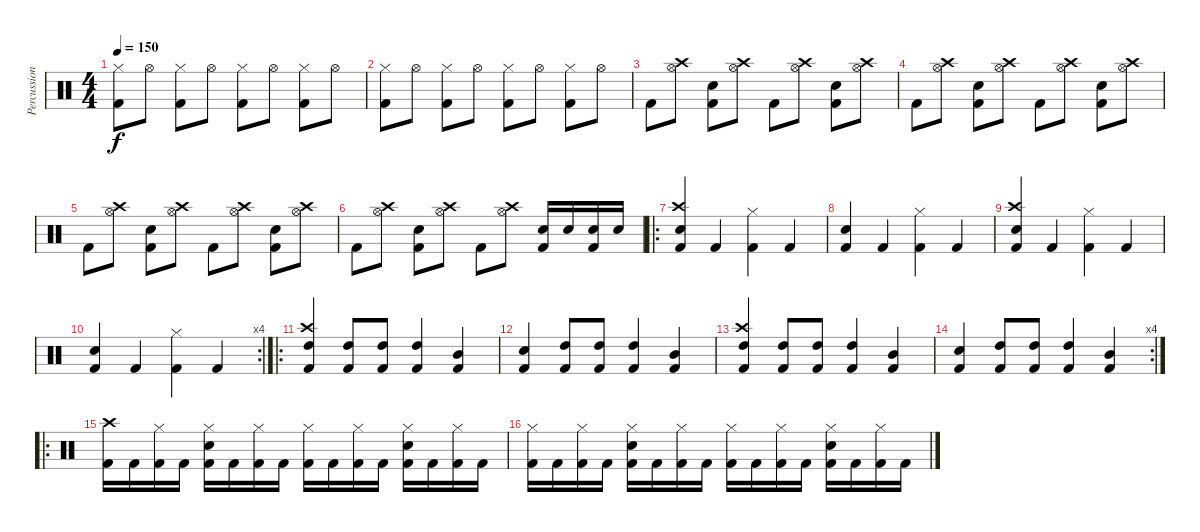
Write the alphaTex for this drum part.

\track ("Percussion" "Percussion") {instrument percussion}
\staff {score}
\articulation defaults
\ts (4 4)
\tempo 150
\clef neutral
\ks c
("Hi-Hat (closed)" "Kick (hit) 2").8{dy f} "Hi-Hat (open)".8 ("Hi-Hat (closed)" "Kick (hit) 2").8 "Hi-Hat (open)".8 ("Hi-Hat (closed)" "Kick (hit) 2").8 "Hi-Hat (open)".8 ("Hi-Hat (closed)" "Kick (hit) 2").8 "Hi-Hat (open)".8 |
("Hi-Hat (closed)" "Kick (hit) 2").8 "Hi-Hat (open)".8 ("Hi-Hat (closed)" "Kick (hit) 2").8 "Hi-Hat (open)".8 ("Hi-Hat (closed)" "Kick (hit) 2").8 "Hi-Hat (open)".8 ("Hi-Hat (closed)" "Kick (hit) 2").8 "Hi-Hat (open)".8 |
"Kick (hit) 2".8 ("Crash high (hit)" "Hi-Hat (open)").8 ("Electric Snare (hit)" "Kick (hit) 2").8 ("Crash high (hit)" "Hi-Hat (open)").8 "Kick (hit) 2".8 ("Crash high (hit)" "Hi-Hat (open)").8 ("Electric Snare (hit)" "Kick (hit) 2").8 ("Crash high (hit)" "Hi-Hat (open)").8 |
"Kick (hit) 2".8 ("Crash high (hit)" "Hi-Hat (open)").8 ("Electric Snare (hit)" "Kick (hit) 2").8 ("Crash high (hit)" "Hi-Hat (open)").8 "Kick (hit) 2".8 ("Crash high (hit)" "Hi-Hat (open)").8 ("Electric Snare (hit)" "Kick (hit) 2").8 ("Crash high (hit)" "Hi-Hat (open)").8 |
"Kick (hit) 2".8 ("Crash high (hit)" "Hi-Hat (open)").8 ("Electric Snare (hit)" "Kick (hit) 2").8 ("Crash high (hit)" "Hi-Hat (open)").8 "Kick (hit) 2".8 ("Crash high (hit)" "Hi-Hat (open)").8 ("Electric Snare (hit)" "Kick (hit) 2").8 ("Crash high (hit)" "Hi-Hat (open)").8 |
"Kick (hit) 2".8 ("Crash high (hit)" "Hi-Hat (open)").8 ("Electric Snare (hit)" "Kick (hit) 2").8 ("Crash high (hit)" "Hi-Hat (open)").8 "Kick (hit) 2".8 ("Crash high (hit)" "Hi-Hat (open)").8 ("Electric Snare (hit)" "Kick (hit) 2").16 "Electric Snare (hit)".16 ("Electric Snare (hit)" "Kick (hit) 2").16 "Electric Snare (hit)".16 |
\ro
("Crash high (hit)" "Electric Snare (hit)" "Kick (hit) 2").4 "Kick (hit) 2".4 ("Hi-Hat (closed)" "Kick (hit) 2").4 "Kick (hit) 2".4 |
("Electric Snare (hit)" "Kick (hit) 2").4 "Kick (hit) 2".4 ("Hi-Hat (closed)" "Kick (hit) 2").4 "Kick (hit) 2".4 |
("Crash high (hit)" "Electric Snare (hit)" "Kick (hit) 2").4 "Kick (hit) 2".4 ("Hi-Hat (closed)" "Kick (hit) 2").4 "Kick (hit) 2".4 |
\rc 4
("Electric Snare (hit)" "Kick (hit) 2").4 "Kick (hit) 2".4 ("Hi-Hat (closed)" "Kick (hit) 2").4 "Kick (hit) 2".4 |
\ro
("Crash high (hit)" "High Tom (hit)" "Kick (hit) 2").4 ("High Tom (hit)" "Kick (hit) 2").8 ("High Tom (hit)" "Kick (hit) 2").8 ("High Tom (hit)" "Kick (hit) 2").4 ("Mid Tom (hit)" "Kick (hit) 2").4 |
("Electric Snare (hit)" "Kick (hit) 2").4 ("High Tom (hit)" "Kick (hit) 2").8 ("High Tom (hit)" "Kick (hit) 2").8 ("High Tom (hit)" "Kick (hit) 2").4 ("Mid Tom (hit)" "Kick (hit) 2").4 |
("Crash high (hit)" "High Tom (hit)" "Kick (hit) 2").4 ("High Tom (hit)" "Kick (hit) 2").8 ("High Tom (hit)" "Kick (hit) 2").8 ("High Tom (hit)" "Kick (hit) 2").4 ("Mid Tom (hit)" "Kick (hit) 2").4 |
\rc 4
("Electric Snare (hit)" "Kick (hit) 2").4 ("High Tom (hit)" "Kick (hit) 2").8 ("High Tom (hit)" "Kick (hit) 2").8 ("High Tom (hit)" "Kick (hit) 2").4 ("Mid Tom (hit)" "Kick (hit) 2").4 |
\ro
("Crash high (hit)" "Kick (hit) 2").16 "Kick (hit) 2".16 ("Hi-Hat (closed)" "Kick (hit) 2").16 "Kick (hit) 2".16 ("Hi-Hat (closed)" "Electric Snare (hit)" "Kick (hit) 2").16 "Kick (hit) 2".16 ("Hi-Hat (closed)" "Kick (hit) 2").16 "Kick (hit) 2".16 ("Hi-Hat (closed)" "Kick (hit) 2").16 "Kick (hit) 2".16 ("Hi-Hat (closed)" "Kick (hit) 2").16 "Kick (hit) 2".16 ("Hi-Hat (closed)" "Electric Snare (hit)" "Kick (hit) 2").16 "Kick (hit) 2".16 ("Hi-Hat (closed)" "Kick (hit) 2").16 "Kick (hit) 2".16 |
("Hi-Hat (closed)" "Kick (hit) 2").16 "Kick (hit) 2".16 ("Hi-Hat (closed)" "Kick (hit) 2").16 "Kick (hit) 2".16 ("Hi-Hat (closed)" "Electric Snare (hit)" "Kick (hit) 2").16 "Kick (hit) 2".16 ("Hi-Hat (closed)" "Kick (hit) 2").16 "Kick (hit) 2".16 ("Hi-Hat (closed)" "Kick (hit) 2").16 "Kick (hit) 2".16 ("Hi-Hat (closed)" "Kick (hit) 2").16 "Kick (hit) 2".16 ("Hi-Hat (closed)" "Electric Snare (hit)" "Kick (hit) 2").16 "Kick (hit) 2".16 ("Hi-Hat (closed)" "Kick (hit) 2").16 "Kick (hit) 2".16
